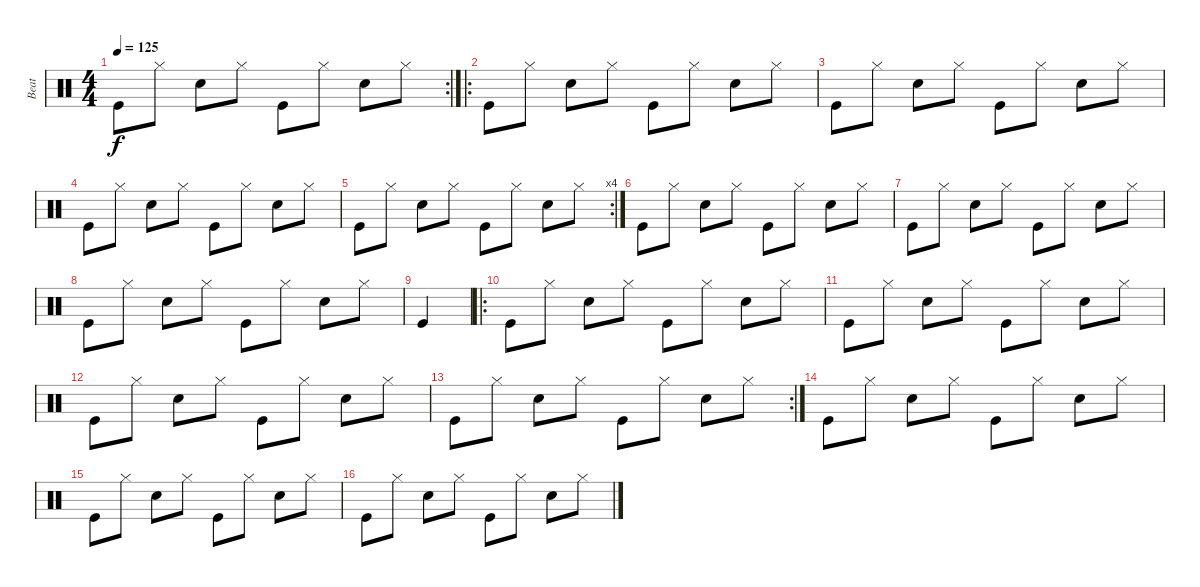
\track ("Beat" "Beat") {instrument percussion}
\staff {score}
\articulation defaults
\rc 2
\ts (4 4)
\tempo 125
\clef neutral
\ks c "Kick (hit)".8{dy f} "Hi-Hat (closed)".8 "Hand Clap (hit)".8 "Hi-Hat (closed)".8 "Kick (hit)".8 "Hi-Hat (closed)".8 "Hand Clap (hit)".8 "Hi-Hat (closed)".8
|
\ro "Kick (hit)".8 "Hi-Hat (closed)".8 "Hand Clap (hit)".8 "Hi-Hat (closed)".8 "Kick (hit)".8 "Hi-Hat (closed)".8 "Hand Clap (hit)".8 "Hi-Hat (closed)".8
|
"Kick (hit)".8 "Hi-Hat (closed)".8 "Hand Clap (hit)".8 "Hi-Hat (closed)".8 "Kick (hit)".8 "Hi-Hat (closed)".8 "Hand Clap (hit)".8 "Hi-Hat (closed)".8 |
"Kick (hit)".8 "Hi-Hat (closed)".8 "Hand Clap (hit)".8 "Hi-Hat (closed)".8 "Kick (hit)".8 "Hi-Hat (closed)".8 "Hand Clap (hit)".8 "Hi-Hat (closed)".8 |
\rc 4 "Kick (hit)".8 "Hi-Hat (closed)".8 "Hand Clap (hit)".8 "Hi-Hat (closed)".8 "Kick (hit)".8 "Hi-Hat (closed)".8 "Hand Clap (hit)".8 "Hi-Hat (closed)".8
|
"Kick (hit)".8 "Hi-Hat (closed)".8 "Hand Clap (hit)".8 "Hi-Hat (closed)".8 "Kick (hit)".8 "Hi-Hat (closed)".8 "Hand Clap (hit)".8 "Hi-Hat (closed)".8 |
"Kick (hit)".8 "Hi-Hat (closed)".8 "Hand Clap (hit)".8 "Hi-Hat (closed)".8 "Kick (hit)".8 "Hi-Hat (closed)".8 "Hand Clap (hit)".8 "Hi-Hat (closed)".8 |
"Kick (hit)".8 "Hi-Hat (closed)".8 "Hand Clap (hit)".8 "Hi-Hat (closed)".8 "Kick (hit)".8 "Hi-Hat (closed)".8 "Hand Clap (hit)".8 "Hi-Hat (closed)".8 |
"Kick (hit)".4 |
\ro "Kick (hit)".8 "Hi-Hat (closed)".8 "Hand Clap (hit)".8 "Hi-Hat (closed)".8 "Kick (hit)".8 "Hi-Hat (closed)".8 "Hand Clap (hit)".8 "Hi-Hat (closed)".8
|
"Kick (hit)".8 "Hi-Hat (closed)".8 "Hand Clap (hit)".8 "Hi-Hat (closed)".8 "Kick (hit)".8 "Hi-Hat (closed)".8 "Hand Clap (hit)".8 "Hi-Hat (closed)".8 |
"Kick (hit)".8 "Hi-Hat (closed)".8 "Hand Clap (hit)".8 "Hi-Hat (closed)".8 "Kick (hit)".8 "Hi-Hat (closed)".8 "Hand Clap (hit)".8 "Hi-Hat (closed)".8 |
\rc 2 "Kick (hit)".8 "Hi-Hat (closed)".8 "Hand Clap (hit)".8 "Hi-Hat (closed)".8 "Kick (hit)".8 "Hi-Hat (closed)".8 "Hand Clap (hit)".8 "Hi-Hat (closed)".8
|
"Kick (hit)".8 "Hi-Hat (closed)".8 "Hand Clap (hit)".8 "Hi-Hat (closed)".8 "Kick (hit)".8 "Hi-Hat (closed)".8 "Hand Clap (hit)".8 "Hi-Hat (closed)".8 |
"Kick (hit)".8 "Hi-Hat (closed)".8 "Hand Clap (hit)".8 "Hi-Hat (closed)".8 "Kick (hit)".8 "Hi-Hat (closed)".8 "Hand Clap (hit)".8 "Hi-Hat (closed)".8 |
"Kick (hit)".8 "Hi-Hat (closed)".8 "Hand Clap (hit)".8 "Hi-Hat (closed)".8 "Kick (hit)".8 "Hi-Hat (closed)".8 "Hand Clap (hit)".8 "Hi-Hat (closed)".8
